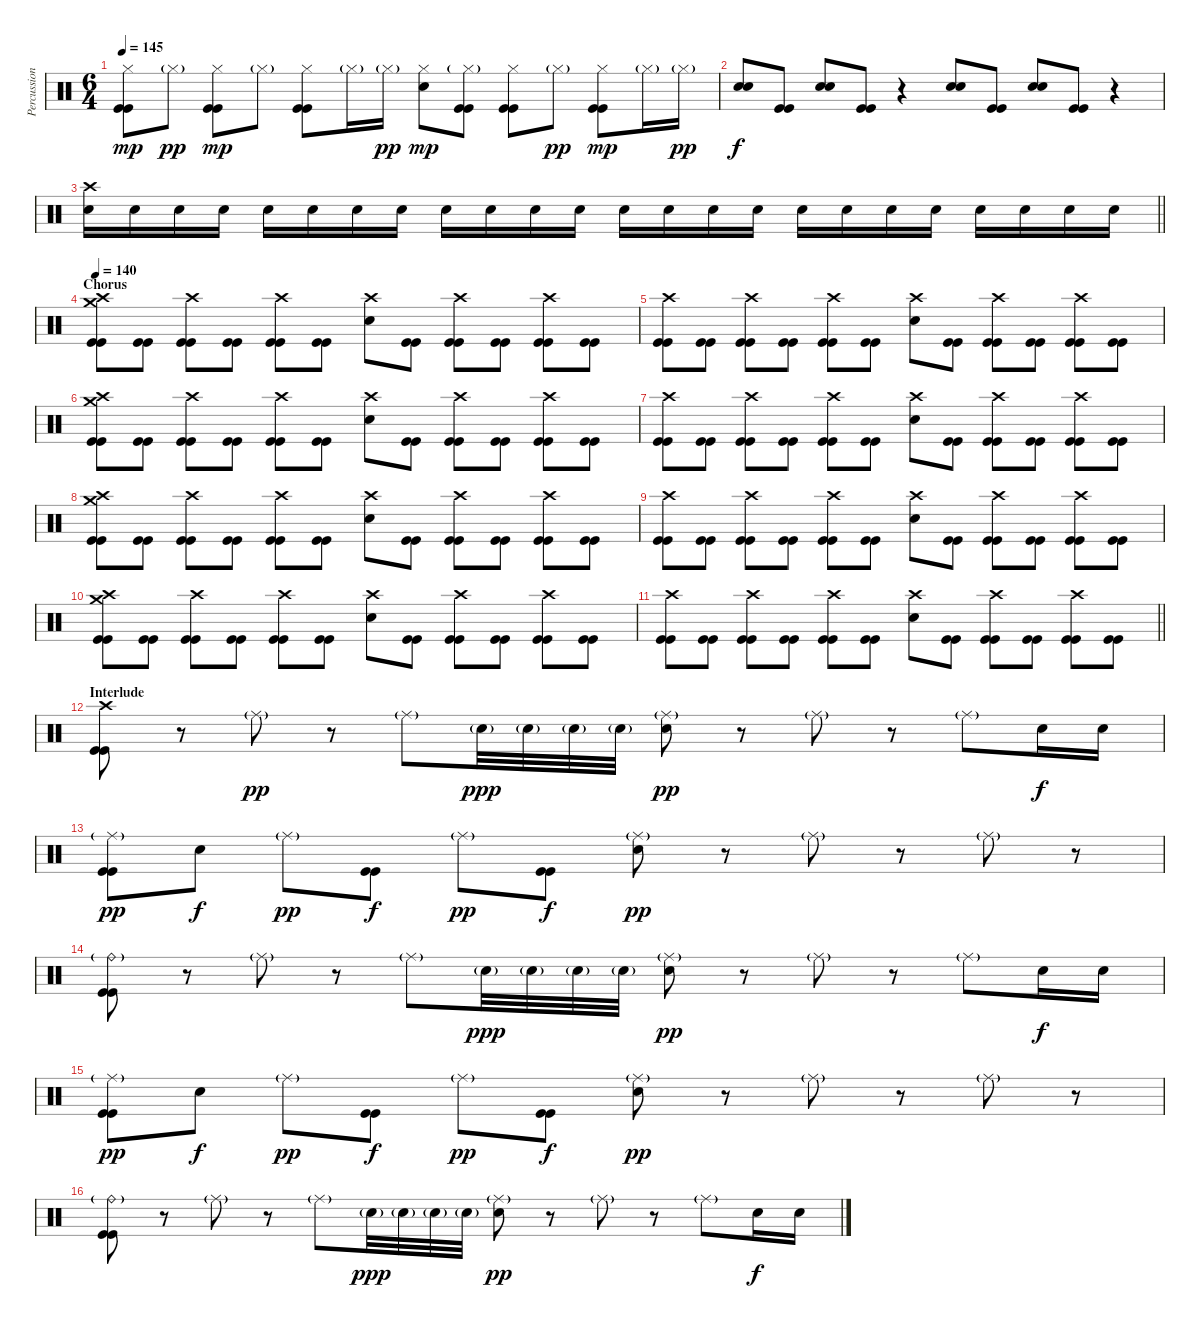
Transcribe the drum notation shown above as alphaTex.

\track ("Percussion" "Percussion") {instrument percussion}
\staff {score}
\articulation defaults
\ts (6 4)
\tempo 145
\clef neutral
\ks c
("Hi-Hat (closed)" "Kick (hit)" "Kick (hit)").8{dy mp} "Hi-Hat (closed)"{g}.8{dy pp} ("Hi-Hat (closed)" "Kick (hit)" "Kick (hit)").8{dy mp} "Hi-Hat (closed)"{g}.8 ("Hi-Hat (closed)" "Kick (hit)" "Kick (hit)").8 "Hi-Hat (closed)"{g}.16 "Hi-Hat (closed)"{g}.16{dy pp} ("Hi-Hat (closed)" "Snare (hit) 2").8{dy mp} ("Hi-Hat (closed)"{g} "Kick (hit)" "Kick (hit)").8 ("Hi-Hat (closed)" "Kick (hit)" "Kick (hit)").8 "Hi-Hat (closed)"{g}.8{dy pp} ("Hi-Hat (closed)" "Kick (hit)" "Kick (hit)").8{dy mp} "Hi-Hat (closed)"{g}.16 "Hi-Hat (closed)"{g}.16{dy pp} |
("Snare (hit) 2" "Snare (hit) 2").8{dy f} ("Kick (hit)" "Kick (hit)").8 ("Snare (hit) 2" "Snare (hit) 2").8 ("Kick (hit)" "Kick (hit)").8 r.4 ("Snare (hit) 2" "Snare (hit) 2").8 ("Kick (hit)" "Kick (hit)").8 ("Snare (hit) 2" "Snare (hit) 2").8 ("Kick (hit)" "Kick (hit)").8 r.4 |
\barLineRight lightlight
("Crash high (hit)" "Snare (hit) 2").16 "Snare (hit) 2".16 "Snare (hit) 2".16 "Snare (hit) 2".16 "Snare (hit) 2".16 "Snare (hit) 2".16 "Snare (hit) 2".16 "Snare (hit) 2".16 "Snare (hit) 2".16 "Snare (hit) 2".16 "Snare (hit) 2".16 "Snare (hit) 2".16 "Snare (hit) 2".16 "Snare (hit) 2".16 "Snare (hit) 2".16 "Snare (hit) 2".16 "Snare (hit) 2".16 "Snare (hit) 2".16 "Snare (hit) 2".16 "Snare (hit) 2".16 "Snare (hit) 2".16 "Snare (hit) 2".16 "Snare (hit) 2".16 "Snare (hit) 2".16 |
\section ("" "Chorus")
\tempo 140
("Crash high (hit)" "Kick (hit)" "Kick (hit)" "Crash medium (hit)").8 ("Kick (hit)" "Kick (hit)").8 ("Crash high (hit)" "Kick (hit)" "Kick (hit)").8 ("Kick (hit)" "Kick (hit)").8 ("Crash high (hit)" "Kick (hit)" "Kick (hit)").8 ("Kick (hit)" "Kick (hit)").8 ("Crash high (hit)" "Snare (hit) 2").8 ("Kick (hit)" "Kick (hit)").8 ("Crash high (hit)" "Kick (hit)" "Kick (hit)").8 ("Kick (hit)" "Kick (hit)").8 ("Crash high (hit)" "Kick (hit)" "Kick (hit)").8 ("Kick (hit)" "Kick (hit)").8 |
("Crash high (hit)" "Kick (hit)" "Kick (hit)").8 ("Kick (hit)" "Kick (hit)").8 ("Crash high (hit)" "Kick (hit)" "Kick (hit)").8 ("Kick (hit)" "Kick (hit)").8 ("Crash high (hit)" "Kick (hit)" "Kick (hit)").8 ("Kick (hit)" "Kick (hit)").8 ("Crash high (hit)" "Snare (hit) 2").8 ("Kick (hit)" "Kick (hit)").8 ("Crash high (hit)" "Kick (hit)" "Kick (hit)").8 ("Kick (hit)" "Kick (hit)").8 ("Crash high (hit)" "Kick (hit)" "Kick (hit)").8 ("Kick (hit)" "Kick (hit)").8 |
("Crash high (hit)" "Kick (hit)" "Kick (hit)" "Crash medium (hit)").8 ("Kick (hit)" "Kick (hit)").8 ("Crash high (hit)" "Kick (hit)" "Kick (hit)").8 ("Kick (hit)" "Kick (hit)").8 ("Crash high (hit)" "Kick (hit)" "Kick (hit)").8 ("Kick (hit)" "Kick (hit)").8 ("Crash high (hit)" "Snare (hit) 2").8 ("Kick (hit)" "Kick (hit)").8 ("Crash high (hit)" "Kick (hit)" "Kick (hit)").8 ("Kick (hit)" "Kick (hit)").8 ("Crash high (hit)" "Kick (hit)" "Kick (hit)").8 ("Kick (hit)" "Kick (hit)").8 |
("Crash high (hit)" "Kick (hit)" "Kick (hit)").8 ("Kick (hit)" "Kick (hit)").8 ("Crash high (hit)" "Kick (hit)" "Kick (hit)").8 ("Kick (hit)" "Kick (hit)").8 ("Crash high (hit)" "Kick (hit)" "Kick (hit)").8 ("Kick (hit)" "Kick (hit)").8 ("Crash high (hit)" "Snare (hit) 2").8 ("Kick (hit)" "Kick (hit)").8 ("Crash high (hit)" "Kick (hit)" "Kick (hit)").8 ("Kick (hit)" "Kick (hit)").8 ("Crash high (hit)" "Kick (hit)" "Kick (hit)").8 ("Kick (hit)" "Kick (hit)").8 |
("Crash high (hit)" "Kick (hit)" "Kick (hit)" "Crash medium (hit)").8 ("Kick (hit)" "Kick (hit)").8 ("Crash high (hit)" "Kick (hit)" "Kick (hit)").8 ("Kick (hit)" "Kick (hit)").8 ("Crash high (hit)" "Kick (hit)" "Kick (hit)").8 ("Kick (hit)" "Kick (hit)").8 ("Crash high (hit)" "Snare (hit) 2").8 ("Kick (hit)" "Kick (hit)").8 ("Crash high (hit)" "Kick (hit)" "Kick (hit)").8 ("Kick (hit)" "Kick (hit)").8 ("Crash high (hit)" "Kick (hit)" "Kick (hit)").8 ("Kick (hit)" "Kick (hit)").8 |
("Crash high (hit)" "Kick (hit)" "Kick (hit)").8 ("Kick (hit)" "Kick (hit)").8 ("Crash high (hit)" "Kick (hit)" "Kick (hit)").8 ("Kick (hit)" "Kick (hit)").8 ("Crash high (hit)" "Kick (hit)" "Kick (hit)").8 ("Kick (hit)" "Kick (hit)").8 ("Crash high (hit)" "Snare (hit) 2").8 ("Kick (hit)" "Kick (hit)").8 ("Crash high (hit)" "Kick (hit)" "Kick (hit)").8 ("Kick (hit)" "Kick (hit)").8 ("Crash high (hit)" "Kick (hit)" "Kick (hit)").8 ("Kick (hit)" "Kick (hit)").8 |
("Crash high (hit)" "Kick (hit)" "Kick (hit)" "Crash medium (hit)").8 ("Kick (hit)" "Kick (hit)").8 ("Crash high (hit)" "Kick (hit)" "Kick (hit)").8 ("Kick (hit)" "Kick (hit)").8 ("Crash high (hit)" "Kick (hit)" "Kick (hit)").8 ("Kick (hit)" "Kick (hit)").8 ("Crash high (hit)" "Snare (hit) 2").8 ("Kick (hit)" "Kick (hit)").8 ("Crash high (hit)" "Kick (hit)" "Kick (hit)").8 ("Kick (hit)" "Kick (hit)").8 ("Crash high (hit)" "Kick (hit)" "Kick (hit)").8 ("Kick (hit)" "Kick (hit)").8 |
\barLineRight lightlight
("Crash high (hit)" "Kick (hit)" "Kick (hit)").8 ("Kick (hit)" "Kick (hit)").8 ("Crash high (hit)" "Kick (hit)" "Kick (hit)").8 ("Kick (hit)" "Kick (hit)").8 ("Crash high (hit)" "Kick (hit)" "Kick (hit)").8 ("Kick (hit)" "Kick (hit)").8 ("Crash high (hit)" "Snare (hit) 2").8 ("Kick (hit)" "Kick (hit)").8 ("Crash high (hit)" "Kick (hit)" "Kick (hit)").8 ("Kick (hit)" "Kick (hit)").8 ("Crash high (hit)" "Kick (hit)" "Kick (hit)").8 ("Kick (hit)" "Kick (hit)").8 |
\section ("" "Interlude")
("Crash high (hit)" "Kick (hit)" "Kick (hit)").8 r.8 "Ride (middle)"{g}.8{dy pp} r.8 "Ride (middle)"{g}.8 "Snare (hit) 2"{g}.32{dy ppp} "Snare (hit) 2"{g}.32 "Snare (hit) 2"{g}.32 "Snare (hit) 2"{g}.32 ("Ride (middle)"{g} "Snare (hit) 2").8{dy pp} r.8 "Ride (middle)"{g}.8 r.8 "Ride (middle)"{g}.8 "Snare (hit) 2".16{dy f} "Snare (hit) 2".16 |
("Ride (middle)"{g} "Kick (hit)" "Kick (hit)").8{dy pp} "Snare (hit) 2".8{dy f} "Ride (middle)"{g}.8{dy pp} ("Kick (hit)" "Kick (hit)").8{dy f} "Ride (middle)"{g}.8{dy pp} ("Kick (hit)" "Kick (hit)").8{dy f} ("Ride (middle)"{g} "Snare (hit) 2").8{dy pp} r.8 "Ride (middle)"{g}.8 r.8 "Ride (middle)"{g}.8 r.8 |
("Ride (bell)"{g} "Kick (hit)" "Kick (hit)").8 r.8 "Ride (middle)"{g}.8 r.8 "Ride (middle)"{g}.8 "Snare (hit) 2"{g}.32{dy ppp} "Snare (hit) 2"{g}.32 "Snare (hit) 2"{g}.32 "Snare (hit) 2"{g}.32 ("Ride (middle)"{g} "Snare (hit) 2").8{dy pp} r.8 "Ride (middle)"{g}.8 r.8 "Ride (middle)"{g}.8 "Snare (hit) 2".16{dy f} "Snare (hit) 2".16 |
("Ride (middle)"{g} "Kick (hit)" "Kick (hit)").8{dy pp} "Snare (hit) 2".8{dy f} "Ride (middle)"{g}.8{dy pp} ("Kick (hit)" "Kick (hit)").8{dy f} "Ride (middle)"{g}.8{dy pp} ("Kick (hit)" "Kick (hit)").8{dy f} ("Ride (middle)"{g} "Snare (hit) 2").8{dy pp} r.8 "Ride (middle)"{g}.8 r.8 "Ride (middle)"{g}.8 r.8 |
("Ride (bell)"{g} "Kick (hit)" "Kick (hit)").8 r.8 "Ride (middle)"{g}.8 r.8 "Ride (middle)"{g}.8 "Snare (hit) 2"{g}.32{dy ppp} "Snare (hit) 2"{g}.32 "Snare (hit) 2"{g}.32 "Snare (hit) 2"{g}.32 ("Ride (middle)"{g} "Snare (hit) 2").8{dy pp} r.8 "Ride (middle)"{g}.8 r.8 "Ride (middle)"{g}.8 "Snare (hit) 2".16{dy f} "Snare (hit) 2".16
